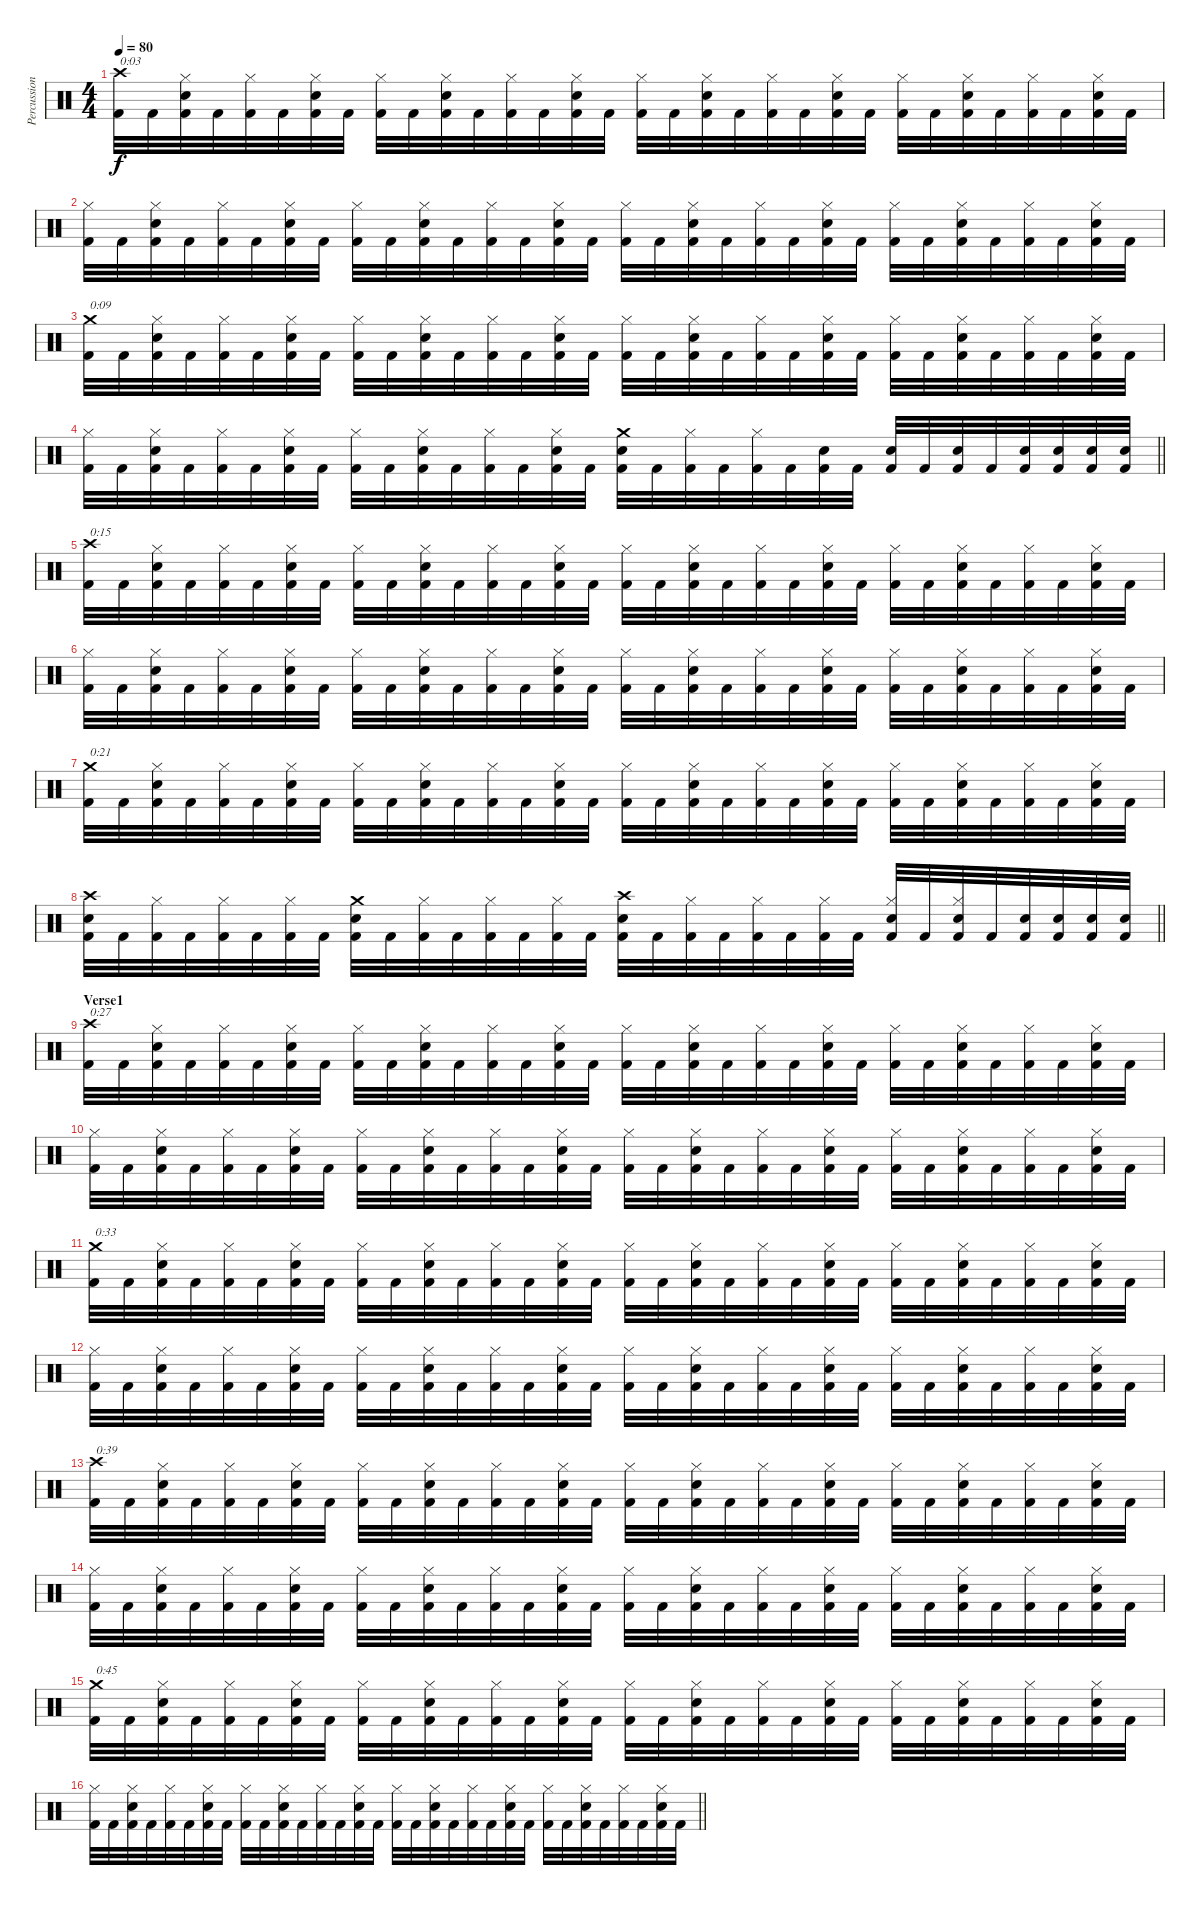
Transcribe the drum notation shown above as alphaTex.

\track ("Percussion" "Percussion") {instrument percussion}
\staff {score}
\articulation defaults
\ts (4 4)
\tempo 80
\clef neutral
\ks c
("Crash high (hit)" "Kick (hit) 2").32{txt "0:03" dy f} "Kick (hit) 2".32 ("Hi-Hat (closed)" "Snare (hit) 2" "Kick (hit) 2").32 "Kick (hit) 2".32 ("Hi-Hat (closed)" "Kick (hit) 2").32 "Kick (hit) 2".32 ("Hi-Hat (closed)" "Snare (hit) 2" "Kick (hit) 2").32 "Kick (hit) 2".32 ("Hi-Hat (closed)" "Kick (hit) 2").32 "Kick (hit) 2".32 ("Hi-Hat (closed)" "Snare (hit) 2" "Kick (hit) 2").32 "Kick (hit) 2".32 ("Hi-Hat (closed)" "Kick (hit) 2").32 "Kick (hit) 2".32 ("Hi-Hat (closed)" "Snare (hit) 2" "Kick (hit) 2").32 "Kick (hit) 2".32 ("Hi-Hat (closed)" "Kick (hit) 2").32 "Kick (hit) 2".32 ("Hi-Hat (closed)" "Snare (hit) 2" "Kick (hit) 2").32 "Kick (hit) 2".32 ("Hi-Hat (closed)" "Kick (hit) 2").32 "Kick (hit) 2".32 ("Hi-Hat (closed)" "Snare (hit) 2" "Kick (hit) 2").32 "Kick (hit) 2".32 ("Hi-Hat (closed)" "Kick (hit) 2").32 "Kick (hit) 2".32 ("Hi-Hat (closed)" "Snare (hit) 2" "Kick (hit) 2").32 "Kick (hit) 2".32 ("Hi-Hat (closed)" "Kick (hit) 2").32 "Kick (hit) 2".32 ("Hi-Hat (closed)" "Snare (hit) 2" "Kick (hit) 2").32 "Kick (hit) 2".32 |
("Hi-Hat (closed)" "Kick (hit) 2").32 "Kick (hit) 2".32 ("Hi-Hat (closed)" "Snare (hit) 2" "Kick (hit) 2").32 "Kick (hit) 2".32 ("Hi-Hat (closed)" "Kick (hit) 2").32 "Kick (hit) 2".32 ("Hi-Hat (closed)" "Snare (hit) 2" "Kick (hit) 2").32 "Kick (hit) 2".32 ("Hi-Hat (closed)" "Kick (hit) 2").32 "Kick (hit) 2".32 ("Hi-Hat (closed)" "Snare (hit) 2" "Kick (hit) 2").32 "Kick (hit) 2".32 ("Hi-Hat (closed)" "Kick (hit) 2").32 "Kick (hit) 2".32 ("Hi-Hat (closed)" "Snare (hit) 2" "Kick (hit) 2").32 "Kick (hit) 2".32 ("Hi-Hat (closed)" "Kick (hit) 2").32 "Kick (hit) 2".32 ("Hi-Hat (closed)" "Snare (hit) 2" "Kick (hit) 2").32 "Kick (hit) 2".32 ("Hi-Hat (closed)" "Kick (hit) 2").32 "Kick (hit) 2".32 ("Hi-Hat (closed)" "Snare (hit) 2" "Kick (hit) 2").32 "Kick (hit) 2".32 ("Hi-Hat (closed)" "Kick (hit) 2").32 "Kick (hit) 2".32 ("Hi-Hat (closed)" "Snare (hit) 2" "Kick (hit) 2").32 "Kick (hit) 2".32 ("Hi-Hat (closed)" "Kick (hit) 2").32 "Kick (hit) 2".32 ("Hi-Hat (closed)" "Snare (hit) 2" "Kick (hit) 2").32 "Kick (hit) 2".32 |
("Crash medium (hit)" "Kick (hit) 2").32{txt "0:09"} "Kick (hit) 2".32 ("Hi-Hat (closed)" "Snare (hit) 2" "Kick (hit) 2").32 "Kick (hit) 2".32 ("Hi-Hat (closed)" "Kick (hit) 2").32 "Kick (hit) 2".32 ("Hi-Hat (closed)" "Snare (hit) 2" "Kick (hit) 2").32 "Kick (hit) 2".32 ("Hi-Hat (closed)" "Kick (hit) 2").32 "Kick (hit) 2".32 ("Hi-Hat (closed)" "Snare (hit) 2" "Kick (hit) 2").32 "Kick (hit) 2".32 ("Hi-Hat (closed)" "Kick (hit) 2").32 "Kick (hit) 2".32 ("Hi-Hat (closed)" "Snare (hit) 2" "Kick (hit) 2").32 "Kick (hit) 2".32 ("Hi-Hat (closed)" "Kick (hit) 2").32 "Kick (hit) 2".32 ("Hi-Hat (closed)" "Snare (hit) 2" "Kick (hit) 2").32 "Kick (hit) 2".32 ("Hi-Hat (closed)" "Kick (hit) 2").32 "Kick (hit) 2".32 ("Hi-Hat (closed)" "Snare (hit) 2" "Kick (hit) 2").32 "Kick (hit) 2".32 ("Hi-Hat (closed)" "Kick (hit) 2").32 "Kick (hit) 2".32 ("Hi-Hat (closed)" "Snare (hit) 2" "Kick (hit) 2").32 "Kick (hit) 2".32 ("Hi-Hat (closed)" "Kick (hit) 2").32 "Kick (hit) 2".32 ("Hi-Hat (closed)" "Snare (hit) 2" "Kick (hit) 2").32 "Kick (hit) 2".32 |
\barLineRight lightlight
("Hi-Hat (closed)" "Kick (hit) 2").32 "Kick (hit) 2".32 ("Hi-Hat (closed)" "Snare (hit) 2" "Kick (hit) 2").32 "Kick (hit) 2".32 ("Hi-Hat (closed)" "Kick (hit) 2").32 "Kick (hit) 2".32 ("Hi-Hat (closed)" "Snare (hit) 2" "Kick (hit) 2").32 "Kick (hit) 2".32 ("Hi-Hat (closed)" "Kick (hit) 2").32 "Kick (hit) 2".32 ("Hi-Hat (closed)" "Snare (hit) 2" "Kick (hit) 2").32 "Kick (hit) 2".32 ("Hi-Hat (closed)" "Kick (hit) 2").32 "Kick (hit) 2".32 ("Hi-Hat (closed)" "Snare (hit) 2" "Kick (hit) 2").32 "Kick (hit) 2".32 ("Crash medium (hit)" "Snare (hit) 2" "Kick (hit) 2").32 "Kick (hit) 2".32 ("Hi-Hat (closed)" "Kick (hit) 2").32 "Kick (hit) 2".32 ("Hi-Hat (closed)" "Kick (hit) 2").32 "Kick (hit) 2".32 ("Snare (hit) 2" "Kick (hit) 2").32 "Kick (hit) 2".32 ("Snare (hit) 2" "Kick (hit) 2").32 "Kick (hit) 2".32 ("Snare (hit) 2" "Kick (hit) 2").32 "Kick (hit) 2".32 ("Snare (hit) 2" "Kick (hit) 2").32 ("Snare (hit) 2" "Kick (hit) 2").32 ("Snare (hit) 2" "Kick (hit) 2").32 ("Snare (hit) 2" "Kick (hit) 2").32 |
("Crash high (hit)" "Kick (hit) 2").32{txt "0:15"} "Kick (hit) 2".32 ("Hi-Hat (closed)" "Snare (hit) 2" "Kick (hit) 2").32 "Kick (hit) 2".32 ("Hi-Hat (closed)" "Kick (hit) 2").32 "Kick (hit) 2".32 ("Hi-Hat (closed)" "Snare (hit) 2" "Kick (hit) 2").32 "Kick (hit) 2".32 ("Hi-Hat (closed)" "Kick (hit) 2").32 "Kick (hit) 2".32 ("Hi-Hat (closed)" "Snare (hit) 2" "Kick (hit) 2").32 "Kick (hit) 2".32 ("Hi-Hat (closed)" "Kick (hit) 2").32 "Kick (hit) 2".32 ("Hi-Hat (closed)" "Snare (hit) 2" "Kick (hit) 2").32 "Kick (hit) 2".32 ("Hi-Hat (closed)" "Kick (hit) 2").32 "Kick (hit) 2".32 ("Hi-Hat (closed)" "Snare (hit) 2" "Kick (hit) 2").32 "Kick (hit) 2".32 ("Hi-Hat (closed)" "Kick (hit) 2").32 "Kick (hit) 2".32 ("Hi-Hat (closed)" "Snare (hit) 2" "Kick (hit) 2").32 "Kick (hit) 2".32 ("Hi-Hat (closed)" "Kick (hit) 2").32 "Kick (hit) 2".32 ("Hi-Hat (closed)" "Snare (hit) 2" "Kick (hit) 2").32 "Kick (hit) 2".32 ("Hi-Hat (closed)" "Kick (hit) 2").32 "Kick (hit) 2".32 ("Hi-Hat (closed)" "Snare (hit) 2" "Kick (hit) 2").32 "Kick (hit) 2".32 |
("Hi-Hat (closed)" "Kick (hit) 2").32 "Kick (hit) 2".32 ("Hi-Hat (closed)" "Snare (hit) 2" "Kick (hit) 2").32 "Kick (hit) 2".32 ("Hi-Hat (closed)" "Kick (hit) 2").32 "Kick (hit) 2".32 ("Hi-Hat (closed)" "Snare (hit) 2" "Kick (hit) 2").32 "Kick (hit) 2".32 ("Hi-Hat (closed)" "Kick (hit) 2").32 "Kick (hit) 2".32 ("Hi-Hat (closed)" "Snare (hit) 2" "Kick (hit) 2").32 "Kick (hit) 2".32 ("Hi-Hat (closed)" "Kick (hit) 2").32 "Kick (hit) 2".32 ("Hi-Hat (closed)" "Snare (hit) 2" "Kick (hit) 2").32 "Kick (hit) 2".32 ("Hi-Hat (closed)" "Kick (hit) 2").32 "Kick (hit) 2".32 ("Hi-Hat (closed)" "Snare (hit) 2" "Kick (hit) 2").32 "Kick (hit) 2".32 ("Hi-Hat (closed)" "Kick (hit) 2").32 "Kick (hit) 2".32 ("Hi-Hat (closed)" "Snare (hit) 2" "Kick (hit) 2").32 "Kick (hit) 2".32 ("Hi-Hat (closed)" "Kick (hit) 2").32 "Kick (hit) 2".32 ("Hi-Hat (closed)" "Snare (hit) 2" "Kick (hit) 2").32 "Kick (hit) 2".32 ("Hi-Hat (closed)" "Kick (hit) 2").32 "Kick (hit) 2".32 ("Hi-Hat (closed)" "Snare (hit) 2" "Kick (hit) 2").32 "Kick (hit) 2".32 |
("Crash medium (hit)" "Kick (hit) 2").32{txt "0:21"} "Kick (hit) 2".32 ("Hi-Hat (closed)" "Snare (hit) 2" "Kick (hit) 2").32 "Kick (hit) 2".32 ("Hi-Hat (closed)" "Kick (hit) 2").32 "Kick (hit) 2".32 ("Hi-Hat (closed)" "Snare (hit) 2" "Kick (hit) 2").32 "Kick (hit) 2".32 ("Hi-Hat (closed)" "Kick (hit) 2").32 "Kick (hit) 2".32 ("Hi-Hat (closed)" "Snare (hit) 2" "Kick (hit) 2").32 "Kick (hit) 2".32 ("Hi-Hat (closed)" "Kick (hit) 2").32 "Kick (hit) 2".32 ("Hi-Hat (closed)" "Snare (hit) 2" "Kick (hit) 2").32 "Kick (hit) 2".32 ("Hi-Hat (closed)" "Kick (hit) 2").32 "Kick (hit) 2".32 ("Hi-Hat (closed)" "Snare (hit) 2" "Kick (hit) 2").32 "Kick (hit) 2".32 ("Hi-Hat (closed)" "Kick (hit) 2").32 "Kick (hit) 2".32 ("Hi-Hat (closed)" "Snare (hit) 2" "Kick (hit) 2").32 "Kick (hit) 2".32 ("Hi-Hat (closed)" "Kick (hit) 2").32 "Kick (hit) 2".32 ("Hi-Hat (closed)" "Snare (hit) 2" "Kick (hit) 2").32 "Kick (hit) 2".32 ("Hi-Hat (closed)" "Kick (hit) 2").32 "Kick (hit) 2".32 ("Hi-Hat (closed)" "Snare (hit) 2" "Kick (hit) 2").32 "Kick (hit) 2".32 |
\barLineRight lightlight
("Crash high (hit)" "Snare (hit) 2" "Kick (hit) 2").32 "Kick (hit) 2".32 ("Hi-Hat (closed)" "Kick (hit) 2").32 "Kick (hit) 2".32 ("Hi-Hat (closed)" "Kick (hit) 2").32 "Kick (hit) 2".32 ("Hi-Hat (closed)" "Kick (hit) 2").32 "Kick (hit) 2".32 ("Crash medium (hit)" "Snare (hit) 2" "Kick (hit) 2").32 "Kick (hit) 2".32 ("Hi-Hat (closed)" "Kick (hit) 2").32 "Kick (hit) 2".32 ("Hi-Hat (closed)" "Kick (hit) 2").32 "Kick (hit) 2".32 ("Hi-Hat (closed)" "Kick (hit) 2").32 "Kick (hit) 2".32 ("Crash high (hit)" "Snare (hit) 2" "Kick (hit) 2").32 "Kick (hit) 2".32 ("Hi-Hat (closed)" "Kick (hit) 2").32 "Kick (hit) 2".32 ("Hi-Hat (closed)" "Kick (hit) 2").32 "Kick (hit) 2".32 ("Hi-Hat (closed)" "Kick (hit) 2").32 "Kick (hit) 2".32 ("Hi-Hat (closed)" "Snare (hit) 2" "Kick (hit) 2").32 "Kick (hit) 2".32 ("Hi-Hat (closed)" "Snare (hit) 2" "Kick (hit) 2").32 "Kick (hit) 2".32 ("Snare (hit) 2" "Kick (hit) 2").32 ("Snare (hit) 2" "Kick (hit) 2").32 ("Snare (hit) 2" "Kick (hit) 2").32 ("Snare (hit) 2" "Kick (hit) 2").32 |
\section ("" "Verse1")
("Crash high (hit)" "Kick (hit) 2").32{txt "0:27"} "Kick (hit) 2".32 ("Hi-Hat (closed)" "Snare (hit) 2" "Kick (hit) 2").32 "Kick (hit) 2".32 ("Hi-Hat (closed)" "Kick (hit) 2").32 "Kick (hit) 2".32 ("Hi-Hat (closed)" "Snare (hit) 2" "Kick (hit) 2").32 "Kick (hit) 2".32 ("Hi-Hat (closed)" "Kick (hit) 2").32 "Kick (hit) 2".32 ("Hi-Hat (closed)" "Snare (hit) 2" "Kick (hit) 2").32 "Kick (hit) 2".32 ("Hi-Hat (closed)" "Kick (hit) 2").32 "Kick (hit) 2".32 ("Hi-Hat (closed)" "Snare (hit) 2" "Kick (hit) 2").32 "Kick (hit) 2".32 ("Hi-Hat (closed)" "Kick (hit) 2").32 "Kick (hit) 2".32 ("Hi-Hat (closed)" "Snare (hit) 2" "Kick (hit) 2").32 "Kick (hit) 2".32 ("Hi-Hat (closed)" "Kick (hit) 2").32 "Kick (hit) 2".32 ("Hi-Hat (closed)" "Snare (hit) 2" "Kick (hit) 2").32 "Kick (hit) 2".32 ("Hi-Hat (closed)" "Kick (hit) 2").32 "Kick (hit) 2".32 ("Hi-Hat (closed)" "Snare (hit) 2" "Kick (hit) 2").32 "Kick (hit) 2".32 ("Hi-Hat (closed)" "Kick (hit) 2").32 "Kick (hit) 2".32 ("Hi-Hat (closed)" "Snare (hit) 2" "Kick (hit) 2").32 "Kick (hit) 2".32 |
("Hi-Hat (closed)" "Kick (hit) 2").32 "Kick (hit) 2".32 ("Hi-Hat (closed)" "Snare (hit) 2" "Kick (hit) 2").32 "Kick (hit) 2".32 ("Hi-Hat (closed)" "Kick (hit) 2").32 "Kick (hit) 2".32 ("Hi-Hat (closed)" "Snare (hit) 2" "Kick (hit) 2").32 "Kick (hit) 2".32 ("Hi-Hat (closed)" "Kick (hit) 2").32 "Kick (hit) 2".32 ("Hi-Hat (closed)" "Snare (hit) 2" "Kick (hit) 2").32 "Kick (hit) 2".32 ("Hi-Hat (closed)" "Kick (hit) 2").32 "Kick (hit) 2".32 ("Hi-Hat (closed)" "Snare (hit) 2" "Kick (hit) 2").32 "Kick (hit) 2".32 ("Hi-Hat (closed)" "Kick (hit) 2").32 "Kick (hit) 2".32 ("Hi-Hat (closed)" "Snare (hit) 2" "Kick (hit) 2").32 "Kick (hit) 2".32 ("Hi-Hat (closed)" "Kick (hit) 2").32 "Kick (hit) 2".32 ("Hi-Hat (closed)" "Snare (hit) 2" "Kick (hit) 2").32 "Kick (hit) 2".32 ("Hi-Hat (closed)" "Kick (hit) 2").32 "Kick (hit) 2".32 ("Hi-Hat (closed)" "Snare (hit) 2" "Kick (hit) 2").32 "Kick (hit) 2".32 ("Hi-Hat (closed)" "Kick (hit) 2").32 "Kick (hit) 2".32 ("Hi-Hat (closed)" "Snare (hit) 2" "Kick (hit) 2").32 "Kick (hit) 2".32 |
("Crash medium (hit)" "Kick (hit) 2").32{txt "0:33"} "Kick (hit) 2".32 ("Hi-Hat (closed)" "Snare (hit) 2" "Kick (hit) 2").32 "Kick (hit) 2".32 ("Hi-Hat (closed)" "Kick (hit) 2").32 "Kick (hit) 2".32 ("Hi-Hat (closed)" "Snare (hit) 2" "Kick (hit) 2").32 "Kick (hit) 2".32 ("Hi-Hat (closed)" "Kick (hit) 2").32 "Kick (hit) 2".32 ("Hi-Hat (closed)" "Snare (hit) 2" "Kick (hit) 2").32 "Kick (hit) 2".32 ("Hi-Hat (closed)" "Kick (hit) 2").32 "Kick (hit) 2".32 ("Hi-Hat (closed)" "Snare (hit) 2" "Kick (hit) 2").32 "Kick (hit) 2".32 ("Hi-Hat (closed)" "Kick (hit) 2").32 "Kick (hit) 2".32 ("Hi-Hat (closed)" "Snare (hit) 2" "Kick (hit) 2").32 "Kick (hit) 2".32 ("Hi-Hat (closed)" "Kick (hit) 2").32 "Kick (hit) 2".32 ("Hi-Hat (closed)" "Snare (hit) 2" "Kick (hit) 2").32 "Kick (hit) 2".32 ("Hi-Hat (closed)" "Kick (hit) 2").32 "Kick (hit) 2".32 ("Hi-Hat (closed)" "Snare (hit) 2" "Kick (hit) 2").32 "Kick (hit) 2".32 ("Hi-Hat (closed)" "Kick (hit) 2").32 "Kick (hit) 2".32 ("Hi-Hat (closed)" "Snare (hit) 2" "Kick (hit) 2").32 "Kick (hit) 2".32 |
("Hi-Hat (closed)" "Kick (hit) 2").32 "Kick (hit) 2".32 ("Hi-Hat (closed)" "Snare (hit) 2" "Kick (hit) 2").32 "Kick (hit) 2".32 ("Hi-Hat (closed)" "Kick (hit) 2").32 "Kick (hit) 2".32 ("Hi-Hat (closed)" "Snare (hit) 2" "Kick (hit) 2").32 "Kick (hit) 2".32 ("Hi-Hat (closed)" "Kick (hit) 2").32 "Kick (hit) 2".32 ("Hi-Hat (closed)" "Snare (hit) 2" "Kick (hit) 2").32 "Kick (hit) 2".32 ("Hi-Hat (closed)" "Kick (hit) 2").32 "Kick (hit) 2".32 ("Hi-Hat (closed)" "Snare (hit) 2" "Kick (hit) 2").32 "Kick (hit) 2".32 ("Hi-Hat (closed)" "Kick (hit) 2").32 "Kick (hit) 2".32 ("Hi-Hat (closed)" "Snare (hit) 2" "Kick (hit) 2").32 "Kick (hit) 2".32 ("Hi-Hat (closed)" "Kick (hit) 2").32 "Kick (hit) 2".32 ("Hi-Hat (closed)" "Snare (hit) 2" "Kick (hit) 2").32 "Kick (hit) 2".32 ("Hi-Hat (closed)" "Kick (hit) 2").32 "Kick (hit) 2".32 ("Hi-Hat (closed)" "Snare (hit) 2" "Kick (hit) 2").32 "Kick (hit) 2".32 ("Hi-Hat (closed)" "Kick (hit) 2").32 "Kick (hit) 2".32 ("Hi-Hat (closed)" "Snare (hit) 2" "Kick (hit) 2").32 "Kick (hit) 2".32 |
("Crash high (hit)" "Kick (hit) 2").32{txt "0:39"} "Kick (hit) 2".32 ("Hi-Hat (closed)" "Snare (hit) 2" "Kick (hit) 2").32 "Kick (hit) 2".32 ("Hi-Hat (closed)" "Kick (hit) 2").32 "Kick (hit) 2".32 ("Hi-Hat (closed)" "Snare (hit) 2" "Kick (hit) 2").32 "Kick (hit) 2".32 ("Hi-Hat (closed)" "Kick (hit) 2").32 "Kick (hit) 2".32 ("Hi-Hat (closed)" "Snare (hit) 2" "Kick (hit) 2").32 "Kick (hit) 2".32 ("Hi-Hat (closed)" "Kick (hit) 2").32 "Kick (hit) 2".32 ("Hi-Hat (closed)" "Snare (hit) 2" "Kick (hit) 2").32 "Kick (hit) 2".32 ("Hi-Hat (closed)" "Kick (hit) 2").32 "Kick (hit) 2".32 ("Hi-Hat (closed)" "Snare (hit) 2" "Kick (hit) 2").32 "Kick (hit) 2".32 ("Hi-Hat (closed)" "Kick (hit) 2").32 "Kick (hit) 2".32 ("Hi-Hat (closed)" "Snare (hit) 2" "Kick (hit) 2").32 "Kick (hit) 2".32 ("Hi-Hat (closed)" "Kick (hit) 2").32 "Kick (hit) 2".32 ("Hi-Hat (closed)" "Snare (hit) 2" "Kick (hit) 2").32 "Kick (hit) 2".32 ("Hi-Hat (closed)" "Kick (hit) 2").32 "Kick (hit) 2".32 ("Hi-Hat (closed)" "Snare (hit) 2" "Kick (hit) 2").32 "Kick (hit) 2".32 |
("Hi-Hat (closed)" "Kick (hit) 2").32 "Kick (hit) 2".32 ("Hi-Hat (closed)" "Snare (hit) 2" "Kick (hit) 2").32 "Kick (hit) 2".32 ("Hi-Hat (closed)" "Kick (hit) 2").32 "Kick (hit) 2".32 ("Hi-Hat (closed)" "Snare (hit) 2" "Kick (hit) 2").32 "Kick (hit) 2".32 ("Hi-Hat (closed)" "Kick (hit) 2").32 "Kick (hit) 2".32 ("Hi-Hat (closed)" "Snare (hit) 2" "Kick (hit) 2").32 "Kick (hit) 2".32 ("Hi-Hat (closed)" "Kick (hit) 2").32 "Kick (hit) 2".32 ("Hi-Hat (closed)" "Snare (hit) 2" "Kick (hit) 2").32 "Kick (hit) 2".32 ("Hi-Hat (closed)" "Kick (hit) 2").32 "Kick (hit) 2".32 ("Hi-Hat (closed)" "Snare (hit) 2" "Kick (hit) 2").32 "Kick (hit) 2".32 ("Hi-Hat (closed)" "Kick (hit) 2").32 "Kick (hit) 2".32 ("Hi-Hat (closed)" "Snare (hit) 2" "Kick (hit) 2").32 "Kick (hit) 2".32 ("Hi-Hat (closed)" "Kick (hit) 2").32 "Kick (hit) 2".32 ("Hi-Hat (closed)" "Snare (hit) 2" "Kick (hit) 2").32 "Kick (hit) 2".32 ("Hi-Hat (closed)" "Kick (hit) 2").32 "Kick (hit) 2".32 ("Hi-Hat (closed)" "Snare (hit) 2" "Kick (hit) 2").32 "Kick (hit) 2".32 |
("Crash medium (hit)" "Kick (hit) 2").32{txt "0:45"} "Kick (hit) 2".32 ("Hi-Hat (closed)" "Snare (hit) 2" "Kick (hit) 2").32 "Kick (hit) 2".32 ("Hi-Hat (closed)" "Kick (hit) 2").32 "Kick (hit) 2".32 ("Hi-Hat (closed)" "Snare (hit) 2" "Kick (hit) 2").32 "Kick (hit) 2".32 ("Hi-Hat (closed)" "Kick (hit) 2").32 "Kick (hit) 2".32 ("Hi-Hat (closed)" "Snare (hit) 2" "Kick (hit) 2").32 "Kick (hit) 2".32 ("Hi-Hat (closed)" "Kick (hit) 2").32 "Kick (hit) 2".32 ("Hi-Hat (closed)" "Snare (hit) 2" "Kick (hit) 2").32 "Kick (hit) 2".32 ("Hi-Hat (closed)" "Kick (hit) 2").32 "Kick (hit) 2".32 ("Hi-Hat (closed)" "Snare (hit) 2" "Kick (hit) 2").32 "Kick (hit) 2".32 ("Hi-Hat (closed)" "Kick (hit) 2").32 "Kick (hit) 2".32 ("Hi-Hat (closed)" "Snare (hit) 2" "Kick (hit) 2").32 "Kick (hit) 2".32 ("Hi-Hat (closed)" "Kick (hit) 2").32 "Kick (hit) 2".32 ("Hi-Hat (closed)" "Snare (hit) 2" "Kick (hit) 2").32 "Kick (hit) 2".32 ("Hi-Hat (closed)" "Kick (hit) 2").32 "Kick (hit) 2".32 ("Hi-Hat (closed)" "Snare (hit) 2" "Kick (hit) 2").32 "Kick (hit) 2".32 |
\barLineRight lightlight
("Hi-Hat (closed)" "Kick (hit) 2").32 "Kick (hit) 2".32 ("Hi-Hat (closed)" "Snare (hit) 2" "Kick (hit) 2").32 "Kick (hit) 2".32 ("Hi-Hat (closed)" "Kick (hit) 2").32 "Kick (hit) 2".32 ("Hi-Hat (closed)" "Snare (hit) 2" "Kick (hit) 2").32 "Kick (hit) 2".32 ("Hi-Hat (closed)" "Kick (hit) 2").32 "Kick (hit) 2".32 ("Hi-Hat (closed)" "Snare (hit) 2" "Kick (hit) 2").32 "Kick (hit) 2".32 ("Hi-Hat (closed)" "Kick (hit) 2").32 "Kick (hit) 2".32 ("Hi-Hat (closed)" "Snare (hit) 2" "Kick (hit) 2").32 "Kick (hit) 2".32 ("Hi-Hat (closed)" "Kick (hit) 2").32 "Kick (hit) 2".32 ("Hi-Hat (closed)" "Snare (hit) 2" "Kick (hit) 2").32 "Kick (hit) 2".32 ("Hi-Hat (closed)" "Kick (hit) 2").32 "Kick (hit) 2".32 ("Hi-Hat (closed)" "Snare (hit) 2" "Kick (hit) 2").32 "Kick (hit) 2".32 ("Hi-Hat (closed)" "Kick (hit) 2").32 "Kick (hit) 2".32 ("Hi-Hat (closed)" "Snare (hit) 2" "Kick (hit) 2").32 "Kick (hit) 2".32 ("Hi-Hat (closed)" "Kick (hit) 2").32 "Kick (hit) 2".32 ("Hi-Hat (closed)" "Snare (hit) 2" "Kick (hit) 2").32 "Kick (hit) 2".32
